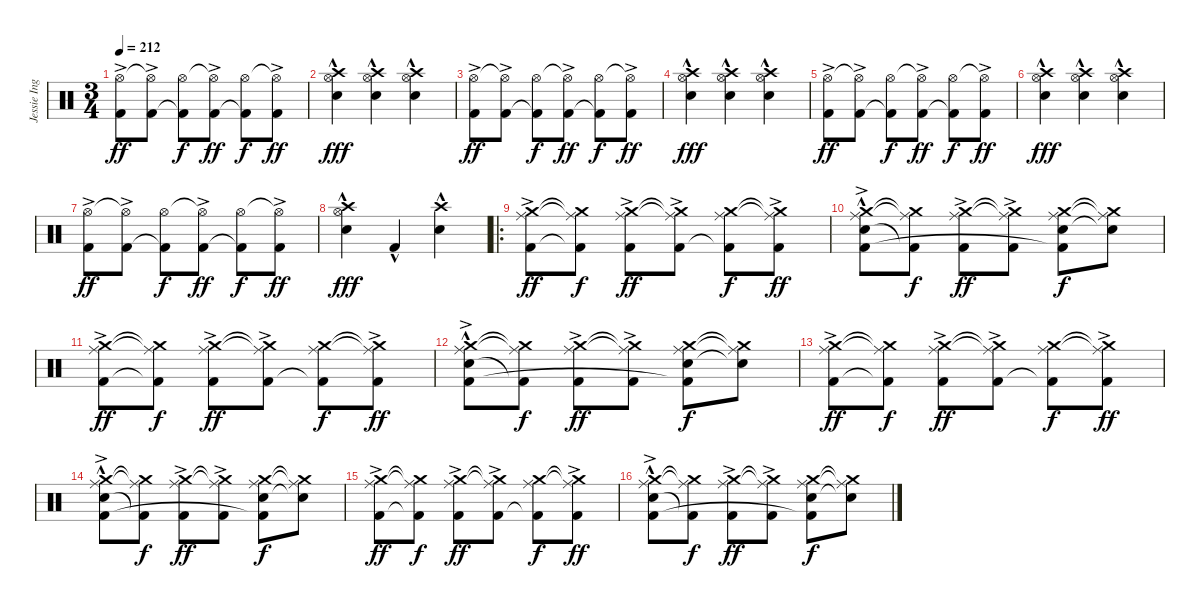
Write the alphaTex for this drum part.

\track ("Jessie Ingelevics" "Jessie Ing") {instrument percussion}
\staff {score}
\articulation defaults
\ts (3 4)
\tempo 212
\clef neutral
\ks c
("Hi-Hat (open)" "Kick (hit) 2"{ac}).8{dy ff} ("Hi-Hat (open)"{t} "Kick (hit) 2"{ac}).8 ("Hi-Hat (open)" "Kick (hit) 2"{t}).8{dy f} ("Hi-Hat (open)"{t} "Kick (hit) 2"{ac}).8{dy ff} ("Hi-Hat (open)" "Kick (hit) 2"{t}).8{dy f} ("Hi-Hat (open)"{t} "Kick (hit) 2"{ac}).8{dy ff} |
("Crash high (hit)" "Hi-Hat (open)" "Electric Snare (hit)"{hac}).4{dy fff} ("Crash high (hit)" "Hi-Hat (open)" "Electric Snare (hit)"{hac}).4 ("Crash high (hit)" "Hi-Hat (open)" "Electric Snare (hit)"{hac}).4 |
("Hi-Hat (open)" "Kick (hit) 2"{ac}).8{dy ff} ("Hi-Hat (open)"{t} "Kick (hit) 2"{ac}).8 ("Hi-Hat (open)" "Kick (hit) 2"{t}).8{dy f} ("Hi-Hat (open)"{t} "Kick (hit) 2"{ac}).8{dy ff} ("Hi-Hat (open)" "Kick (hit) 2"{t}).8{dy f} ("Hi-Hat (open)"{t} "Kick (hit) 2"{ac}).8{dy ff} |
("Crash high (hit)" "Hi-Hat (open)" "Electric Snare (hit)"{hac}).4{dy fff} ("Crash high (hit)" "Hi-Hat (open)" "Electric Snare (hit)"{hac}).4 ("Crash high (hit)" "Hi-Hat (open)" "Electric Snare (hit)"{hac}).4 |
("Hi-Hat (open)" "Kick (hit) 2"{ac}).8{dy ff} ("Hi-Hat (open)"{t} "Kick (hit) 2"{ac}).8 ("Hi-Hat (open)" "Kick (hit) 2"{t}).8{dy f} ("Hi-Hat (open)"{t} "Kick (hit) 2"{ac}).8{dy ff} ("Hi-Hat (open)" "Kick (hit) 2"{t}).8{dy f} ("Hi-Hat (open)"{t} "Kick (hit) 2"{ac}).8{dy ff} |
("Crash high (hit)" "Hi-Hat (open)" "Electric Snare (hit)"{hac}).4{dy fff} ("Crash high (hit)" "Hi-Hat (open)" "Electric Snare (hit)"{hac}).4 ("Crash high (hit)" "Hi-Hat (open)" "Electric Snare (hit)"{hac}).4 |
("Hi-Hat (open)" "Kick (hit) 2"{ac}).8{dy ff} ("Hi-Hat (open)"{t} "Kick (hit) 2"{ac}).8 ("Hi-Hat (open)" "Kick (hit) 2"{t}).8{dy f} ("Hi-Hat (open)"{t} "Kick (hit) 2"{ac}).8{dy ff} ("Hi-Hat (open)" "Kick (hit) 2"{t}).8{dy f} ("Hi-Hat (open)"{t} "Kick (hit) 2"{ac}).8{dy ff} |
("Crash high (hit)" "Hi-Hat (open)" "Electric Snare (hit)"{hac}).4{dy fff} "Kick (hit) 2"{hac}.4 ("Crash high (hit)" "Electric Snare (hit)"{hac}).4 |
\ro
("Crash medium (hit)" "Ride (middle)" "Kick (hit) 2"{ac}).8{dy ff} ("Crash medium (hit)"{t} "Ride (middle)"{t} "Kick (hit) 2"{t}).8{dy f} ("Crash medium (hit)" "Ride (middle)" "Kick (hit) 2"{ac}).8{dy ff} ("Crash medium (hit)"{t} "Ride (middle)"{t} "Kick (hit) 2"{ac}).8 ("Crash medium (hit)" "Ride (middle)" "Kick (hit) 2"{t}).8{dy f} ("Crash medium (hit)"{t} "Ride (middle)"{t} "Kick (hit) 2"{ac}).8{dy ff} |
("Crash medium (hit)" "Ride (middle)" "Electric Snare (hit)"{hac} "Kick (hit) 2"{ac}).8 ("Crash medium (hit)"{t} "Ride (middle)"{t} "Kick (hit) 2"{t}).8{dy f} ("Crash medium (hit)" "Ride (middle)" "Kick (hit) 2"{ac}).8{dy ff} ("Crash medium (hit)"{t} "Ride (middle)"{t} "Kick (hit) 2"{ac}).8 ("Crash medium (hit)" "Ride (middle)" "Electric Snare (hit)" "Kick (hit) 2"{t}).8{dy f} ("Crash medium (hit)"{t} "Ride (middle)"{t} "Electric Snare (hit)"{t}).8 |
("Crash medium (hit)" "Ride (middle)" "Kick (hit) 2"{ac}).8{dy ff} ("Crash medium (hit)"{t} "Ride (middle)"{t} "Kick (hit) 2"{t}).8{dy f} ("Crash medium (hit)" "Ride (middle)" "Kick (hit) 2"{ac}).8{dy ff} ("Crash medium (hit)"{t} "Ride (middle)"{t} "Kick (hit) 2"{ac}).8 ("Crash medium (hit)" "Ride (middle)" "Kick (hit) 2"{t}).8{dy f} ("Crash medium (hit)"{t} "Ride (middle)"{t} "Kick (hit) 2"{ac}).8{dy ff} |
("Crash medium (hit)" "Ride (middle)" "Electric Snare (hit)"{hac} "Kick (hit) 2"{ac}).8 ("Crash medium (hit)"{t} "Ride (middle)"{t} "Kick (hit) 2"{t}).8{dy f} ("Crash medium (hit)" "Ride (middle)" "Kick (hit) 2"{ac}).8{dy ff} ("Crash medium (hit)"{t} "Ride (middle)"{t} "Kick (hit) 2"{ac}).8 ("Crash medium (hit)" "Ride (middle)" "Electric Snare (hit)" "Kick (hit) 2"{t}).8{dy f} ("Crash medium (hit)"{t} "Ride (middle)"{t} "Electric Snare (hit)"{t}).8 |
("Crash medium (hit)" "Ride (middle)" "Kick (hit) 2"{ac}).8{dy ff} ("Crash medium (hit)"{t} "Ride (middle)"{t} "Kick (hit) 2"{t}).8{dy f} ("Crash medium (hit)" "Ride (middle)" "Kick (hit) 2"{ac}).8{dy ff} ("Crash medium (hit)"{t} "Ride (middle)"{t} "Kick (hit) 2"{ac}).8 ("Crash medium (hit)" "Ride (middle)" "Kick (hit) 2"{t}).8{dy f} ("Crash medium (hit)"{t} "Ride (middle)"{t} "Kick (hit) 2"{ac}).8{dy ff} |
("Crash medium (hit)" "Ride (middle)" "Electric Snare (hit)"{hac} "Kick (hit) 2"{ac}).8 ("Crash medium (hit)"{t} "Ride (middle)"{t} "Kick (hit) 2"{t}).8{dy f} ("Crash medium (hit)" "Ride (middle)" "Kick (hit) 2"{ac}).8{dy ff} ("Crash medium (hit)"{t} "Ride (middle)"{t} "Kick (hit) 2"{ac}).8 ("Crash medium (hit)" "Ride (middle)" "Electric Snare (hit)" "Kick (hit) 2"{t}).8{dy f} ("Crash medium (hit)"{t} "Ride (middle)"{t} "Electric Snare (hit)"{t}).8 |
("Crash medium (hit)" "Ride (middle)" "Kick (hit) 2"{ac}).8{dy ff} ("Crash medium (hit)"{t} "Ride (middle)"{t} "Kick (hit) 2"{t}).8{dy f} ("Crash medium (hit)" "Ride (middle)" "Kick (hit) 2"{ac}).8{dy ff} ("Crash medium (hit)"{t} "Ride (middle)"{t} "Kick (hit) 2"{ac}).8 ("Crash medium (hit)" "Ride (middle)" "Kick (hit) 2"{t}).8{dy f} ("Crash medium (hit)"{t} "Ride (middle)"{t} "Kick (hit) 2"{ac}).8{dy ff} |
("Crash medium (hit)" "Ride (middle)" "Electric Snare (hit)"{hac} "Kick (hit) 2"{ac}).8 ("Crash medium (hit)"{t} "Ride (middle)"{t} "Kick (hit) 2"{t}).8{dy f} ("Crash medium (hit)" "Ride (middle)" "Kick (hit) 2"{ac}).8{dy ff} ("Crash medium (hit)"{t} "Ride (middle)"{t} "Kick (hit) 2"{ac}).8 ("Crash medium (hit)" "Ride (middle)" "Electric Snare (hit)" "Kick (hit) 2"{t}).8{dy f} ("Crash medium (hit)"{t} "Ride (middle)"{t} "Electric Snare (hit)"{t}).8
